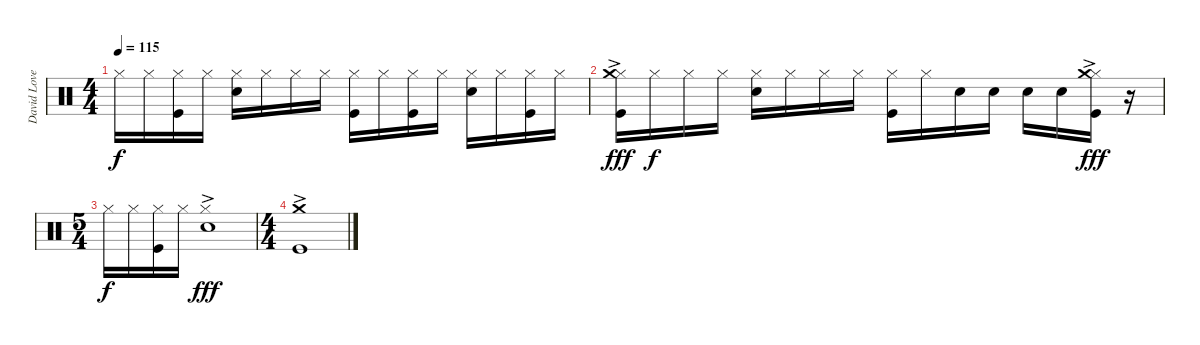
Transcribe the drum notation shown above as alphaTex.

\track ("David Lovering" "David Love") {instrument percussion}
\staff {score}
\articulation defaults
\ts (4 4)
\tempo 115
\clef neutral
\ks c "Hi-Hat (closed)".16{dy f} "Hi-Hat (closed)".16
("Hi-Hat (closed)" "Kick (hit)").16 "Hi-Hat (closed)".16 ("Hi-Hat (closed)" "Snare (hit) 2").16 "Hi-Hat (closed)".16 "Hi-Hat (closed)".16 "Hi-Hat (closed)".16 ("Hi-Hat (closed)" "Kick (hit)").16 "Hi-Hat (closed)".16 ("Hi-Hat (closed)" "Kick (hit)").16 "Hi-Hat (closed)".16 ("Hi-Hat (closed)" "Snare (hit) 2").16 "Hi-Hat (closed)".16 ("Hi-Hat (closed)" "Kick (hit)").16 "Hi-Hat (closed)".16 |
("Hi-Hat (closed)" "Crash medium (hit)"{ac} "Kick (hit)").16{dy fff} "Hi-Hat (closed)".16{dy f} "Hi-Hat (closed)".16 "Hi-Hat (closed)".16 ("Hi-Hat (closed)" "Snare (hit) 2").16 "Hi-Hat (closed)".16 "Hi-Hat (closed)".16 "Hi-Hat (closed)".16 ("Hi-Hat (closed)" "Kick (hit)").16 "Hi-Hat (closed)".16 "Snare (hit) 2".16 "Snare (hit) 2".16 "Snare (hit) 2".16 "Snare (hit) 2".16 ("Hi-Hat (closed)" "Crash medium (hit)"{ac} "Kick (hit)").16{dy fff} r.16 |
\ts (5 4)
"Hi-Hat (closed)".16{dy f} "Hi-Hat (closed)".16 ("Hi-Hat (closed)" "Kick (hit)").16 "Hi-Hat (closed)".16 ("Hi-Hat (closed)" "Snare (hit) 2"{ac}).1{dy fff} |
\ts (4 4)
("Crash medium (hit)"{ac} "Kick (hit)"{ac}).1
